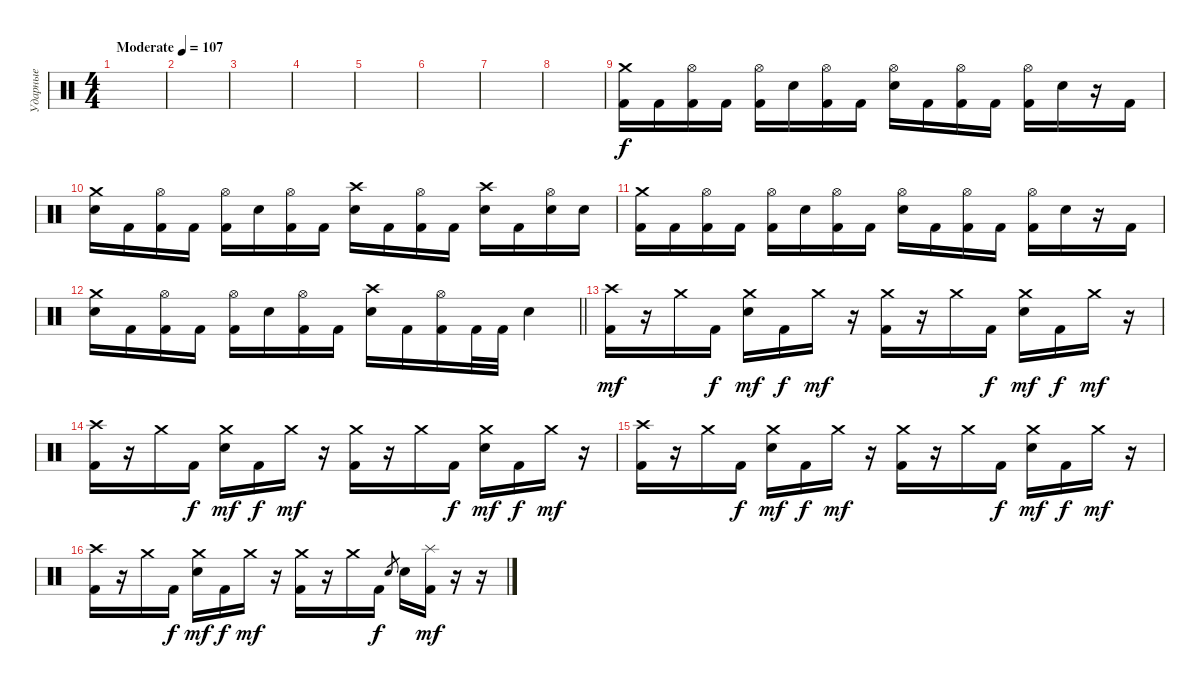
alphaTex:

\track ("Ударные" "Ударные") {instrument percussion}
\staff {score}
\articulation defaults
\ts (4 4)
\section ("" "")
\tempo (107 "Moderate")
\clef neutral
\ks c
|
|
|
|
|
|
|
|
("Kick (hit) 2" "Crash medium (hit)").16{volume 16} "Kick (hit) 2".16 ("Kick (hit) 2" "Hi-Hat (open)").16 "Kick (hit) 2".16 ("Kick (hit) 2" "Hi-Hat (open)").16 "Electric Snare (hit)".16 ("Kick (hit) 2" "Hi-Hat (open)").16 "Kick (hit) 2".16 ("Electric Snare (hit)" "Hi-Hat (open)").16 "Kick (hit) 2".16 ("Kick (hit) 2" "Hi-Hat (open)").16 "Kick (hit) 2".16 ("Kick (hit) 2" "Hi-Hat (open)").16 "Electric Snare (hit)".16 r.16 "Kick (hit) 2".16 |
("Electric Snare (hit)" "Crash medium (hit)").16{volume 16} "Kick (hit) 2".16 ("Kick (hit) 2" "Hi-Hat (open)").16 "Kick (hit) 2".16 ("Kick (hit) 2" "Hi-Hat (open)").16 "Electric Snare (hit)".16 ("Kick (hit) 2" "Hi-Hat (open)").16 "Kick (hit) 2".16 ("Electric Snare (hit)" "Crash high (hit)").16 "Kick (hit) 2".16 ("Kick (hit) 2" "Hi-Hat (open)").16 "Kick (hit) 2".16 ("Electric Snare (hit)" "Crash high (hit)").16 "Kick (hit) 2".16 ("Electric Snare (hit)" "Hi-Hat (open)").16 "Electric Snare (hit)".16 |
("Kick (hit) 2" "Crash medium (hit)").16{volume 16} "Kick (hit) 2".16 ("Kick (hit) 2" "Hi-Hat (open)").16 "Kick (hit) 2".16 ("Kick (hit) 2" "Hi-Hat (open)").16 "Electric Snare (hit)".16 ("Kick (hit) 2" "Hi-Hat (open)").16 "Kick (hit) 2".16 ("Electric Snare (hit)" "Hi-Hat (open)").16 "Kick (hit) 2".16 ("Kick (hit) 2" "Hi-Hat (open)").16 "Kick (hit) 2".16 ("Kick (hit) 2" "Hi-Hat (open)").16 "Electric Snare (hit)".16 r.16 "Kick (hit) 2".16 |
\barLineRight lightlight
("Electric Snare (hit)" "Crash medium (hit)").16{volume 16} "Kick (hit) 2".16 ("Kick (hit) 2" "Hi-Hat (open)").16 "Kick (hit) 2".16 ("Kick (hit) 2" "Hi-Hat (open)").16 "Electric Snare (hit)".16 ("Kick (hit) 2" "Hi-Hat (open)").16 "Kick (hit) 2".16 ("Electric Snare (hit)" "Crash high (hit)").16 "Kick (hit) 2".16 ("Kick (hit) 2" "Hi-Hat (open)").16 "Kick (hit) 2".32 "Kick (hit) 2".32 "Electric Snare (hit)".4 |
\section ("" "")
("Kick (hit) 2" "Crash high (hit)").16{dy mf volume 16} r.16 "Crash medium (hit)".16 "Kick (hit) 2".16{dy f} ("Electric Snare (hit)" "Crash medium (hit)").16{dy mf} "Kick (hit) 2".16{dy f} "Crash medium (hit)".16{dy mf} r.16 ("Kick (hit) 2" "Crash medium (hit)").16 r.16 "Crash medium (hit)".16 "Kick (hit) 2".16{dy f} ("Electric Snare (hit)" "Crash medium (hit)").16{dy mf} "Kick (hit) 2".16{dy f} "Crash medium (hit)".16{dy mf} r.16 |
("Kick (hit) 2" "Crash high (hit)").16{volume 16} r.16 "Crash medium (hit)".16 "Kick (hit) 2".16{dy f} ("Electric Snare (hit)" "Crash medium (hit)").16{dy mf} "Kick (hit) 2".16{dy f} "Crash medium (hit)".16{dy mf} r.16 ("Kick (hit) 2" "Crash medium (hit)").16 r.16 "Crash medium (hit)".16 "Kick (hit) 2".16{dy f} ("Electric Snare (hit)" "Crash medium (hit)").16{dy mf} "Kick (hit) 2".16{dy f} "Crash medium (hit)".16{dy mf} r.16 |
("Kick (hit) 2" "Crash high (hit)").16{volume 16} r.16 "Crash medium (hit)".16 "Kick (hit) 2".16{dy f} ("Electric Snare (hit)" "Crash medium (hit)").16{dy mf} "Kick (hit) 2".16{dy f} "Crash medium (hit)".16{dy mf} r.16 ("Kick (hit) 2" "Crash medium (hit)").16 r.16 "Crash medium (hit)".16 "Kick (hit) 2".16{dy f} ("Electric Snare (hit)" "Crash medium (hit)").16{dy mf} "Kick (hit) 2".16{dy f} "Crash medium (hit)".16{dy mf} r.16 |
("Kick (hit) 2" "Crash high (hit)").16{volume 16} r.16 "Crash medium (hit)".16 "Kick (hit) 2".16{dy f} ("Electric Snare (hit)" "Crash medium (hit)").16{dy mf} "Kick (hit) 2".16{dy f} "Crash medium (hit)".16{dy mf} r.16 ("Kick (hit) 2" "Crash medium (hit)").16 r.16 "Crash medium (hit)".16 "Kick (hit) 2".16{dy f} "Electric Snare (hit)".8{gr} "Electric Snare (hit)".16 ("Kick (hit) 2" "Splash (hit)").16{dy mf} r.16 r.16
